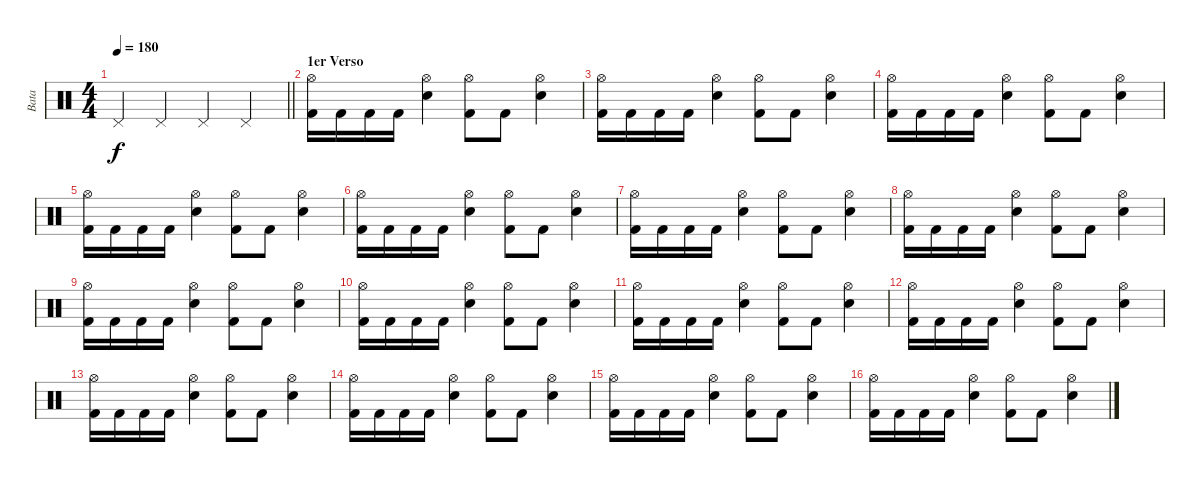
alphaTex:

\track ("Bata" "Bata") {instrument percussion}
\staff {score}
\articulation defaults
\ts (4 4)
\tempo 180
\clef neutral
\barLineRight lightlight
\ks c "Pedal Hi-Hat (hit)".4{dy f} "Pedal Hi-Hat (hit)".4 "Pedal Hi-Hat (hit)".4 "Pedal Hi-Hat (hit)".4
|
\section ("" "1er Verso")
("Hi-Hat (open)" "Kick (hit) 2").16 "Kick (hit) 2".16 "Kick (hit) 2".16 "Kick (hit) 2".16 ("Hi-Hat (open)" "Snare (hit) 2").4 ("Hi-Hat (open)" "Kick (hit) 2").8 "Kick (hit) 2".8 ("Hi-Hat (open)" "Snare (hit) 2").4 |
("Hi-Hat (open)" "Kick (hit) 2").16 "Kick (hit) 2".16 "Kick (hit) 2".16 "Kick (hit) 2".16 ("Hi-Hat (open)" "Snare (hit) 2").4 ("Hi-Hat (open)" "Kick (hit) 2").8 "Kick (hit) 2".8 ("Hi-Hat (open)" "Snare (hit) 2").4 |
("Hi-Hat (open)" "Kick (hit) 2").16 "Kick (hit) 2".16 "Kick (hit) 2".16 "Kick (hit) 2".16 ("Hi-Hat (open)" "Snare (hit) 2").4 ("Hi-Hat (open)" "Kick (hit) 2").8 "Kick (hit) 2".8 ("Hi-Hat (open)" "Snare (hit) 2").4 |
("Hi-Hat (open)" "Kick (hit) 2").16 "Kick (hit) 2".16 "Kick (hit) 2".16 "Kick (hit) 2".16 ("Hi-Hat (open)" "Snare (hit) 2").4 ("Hi-Hat (open)" "Kick (hit) 2").8 "Kick (hit) 2".8 ("Hi-Hat (open)" "Snare (hit) 2").4 |
("Hi-Hat (open)" "Kick (hit) 2").16 "Kick (hit) 2".16 "Kick (hit) 2".16 "Kick (hit) 2".16 ("Hi-Hat (open)" "Snare (hit) 2").4 ("Hi-Hat (open)" "Kick (hit) 2").8 "Kick (hit) 2".8 ("Hi-Hat (open)" "Snare (hit) 2").4 |
("Hi-Hat (open)" "Kick (hit) 2").16 "Kick (hit) 2".16 "Kick (hit) 2".16 "Kick (hit) 2".16 ("Hi-Hat (open)" "Snare (hit) 2").4 ("Hi-Hat (open)" "Kick (hit) 2").8 "Kick (hit) 2".8 ("Hi-Hat (open)" "Snare (hit) 2").4 |
("Hi-Hat (open)" "Kick (hit) 2").16 "Kick (hit) 2".16 "Kick (hit) 2".16 "Kick (hit) 2".16 ("Hi-Hat (open)" "Snare (hit) 2").4 ("Hi-Hat (open)" "Kick (hit) 2").8 "Kick (hit) 2".8 ("Hi-Hat (open)" "Snare (hit) 2").4 |
("Hi-Hat (open)" "Kick (hit) 2").16 "Kick (hit) 2".16 "Kick (hit) 2".16 "Kick (hit) 2".16 ("Hi-Hat (open)" "Snare (hit) 2").4 ("Hi-Hat (open)" "Kick (hit) 2").8 "Kick (hit) 2".8 ("Hi-Hat (open)" "Snare (hit) 2").4 |
("Hi-Hat (open)" "Kick (hit) 2").16 "Kick (hit) 2".16 "Kick (hit) 2".16 "Kick (hit) 2".16 ("Hi-Hat (open)" "Snare (hit) 2").4 ("Hi-Hat (open)" "Kick (hit) 2").8 "Kick (hit) 2".8 ("Hi-Hat (open)" "Snare (hit) 2").4 |
("Hi-Hat (open)" "Kick (hit) 2").16 "Kick (hit) 2".16 "Kick (hit) 2".16 "Kick (hit) 2".16 ("Hi-Hat (open)" "Snare (hit) 2").4 ("Hi-Hat (open)" "Kick (hit) 2").8 "Kick (hit) 2".8 ("Hi-Hat (open)" "Snare (hit) 2").4 |
("Hi-Hat (open)" "Kick (hit) 2").16 "Kick (hit) 2".16 "Kick (hit) 2".16 "Kick (hit) 2".16 ("Hi-Hat (open)" "Snare (hit) 2").4 ("Hi-Hat (open)" "Kick (hit) 2").8 "Kick (hit) 2".8 ("Hi-Hat (open)" "Snare (hit) 2").4 |
("Hi-Hat (open)" "Kick (hit) 2").16 "Kick (hit) 2".16 "Kick (hit) 2".16 "Kick (hit) 2".16 ("Hi-Hat (open)" "Snare (hit) 2").4 ("Hi-Hat (open)" "Kick (hit) 2").8 "Kick (hit) 2".8 ("Hi-Hat (open)" "Snare (hit) 2").4 |
("Hi-Hat (open)" "Kick (hit) 2").16 "Kick (hit) 2".16 "Kick (hit) 2".16 "Kick (hit) 2".16 ("Hi-Hat (open)" "Snare (hit) 2").4 ("Hi-Hat (open)" "Kick (hit) 2").8 "Kick (hit) 2".8 ("Hi-Hat (open)" "Snare (hit) 2").4 |
("Hi-Hat (open)" "Kick (hit) 2").16 "Kick (hit) 2".16 "Kick (hit) 2".16 "Kick (hit) 2".16 ("Hi-Hat (open)" "Snare (hit) 2").4 ("Hi-Hat (open)" "Kick (hit) 2").8 "Kick (hit) 2".8 ("Hi-Hat (open)" "Snare (hit) 2").4 |
("Hi-Hat (open)" "Kick (hit) 2").16 "Kick (hit) 2".16 "Kick (hit) 2".16 "Kick (hit) 2".16 ("Hi-Hat (open)" "Snare (hit) 2").4 ("Hi-Hat (open)" "Kick (hit) 2").8 "Kick (hit) 2".8 ("Hi-Hat (open)" "Snare (hit) 2").4
